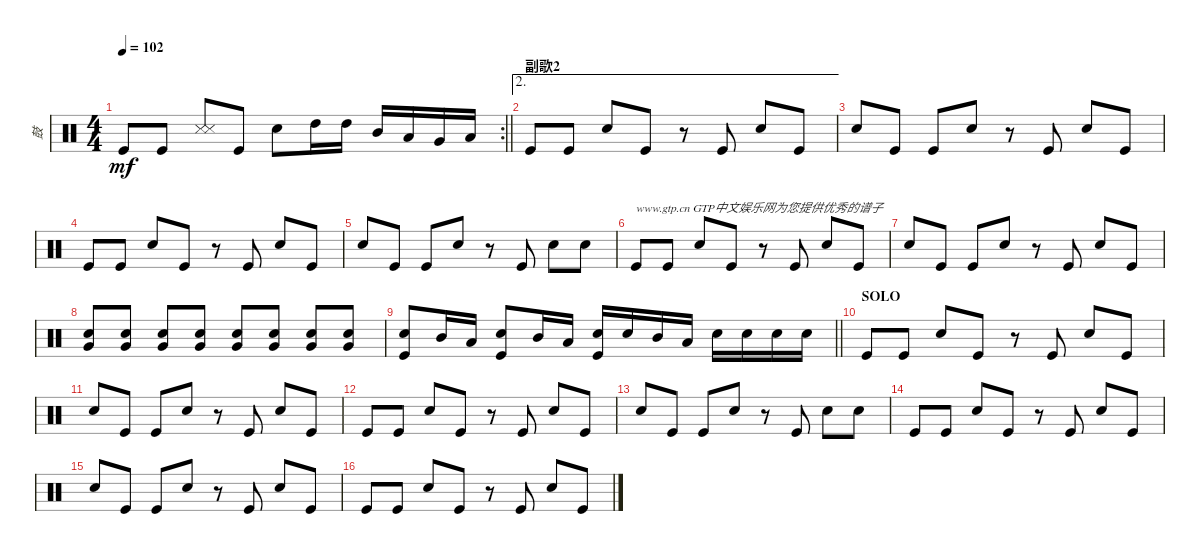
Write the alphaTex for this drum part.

\track ("鼓" "鼓") {instrument percussion}
\staff {score}
\articulation defaults
\rc 2
\ts (4 4)
\tempo 102
\clef neutral
\barLineRight lightlight
\ks c "Kick (hit)".8{dy mf} "Kick (hit)".8
("Snare (side stick) 3" "Snare (side stick) 3").8 "Kick (hit)".8 "Electric Snare (hit)".8 "High Tom (hit)".16 "High Tom (hit)".16 "Mid Tom (hit)".16 "Low Tom (hit)".16 "Very Low Tom (hit)".16 "Low Floor Tom (hit)".16 |
\ae 2
\section ("" "副歌2")
"Kick (hit)".8 "Kick (hit)".8 "Electric Snare (hit)".8 "Kick (hit)".8 r.8 "Kick (hit)".8 "Electric Snare (hit)".8 "Kick (hit)".8 |
"Electric Snare (hit)".8 "Kick (hit)".8 "Kick (hit)".8 "Electric Snare (hit)".8 r.8 "Kick (hit)".8 "Electric Snare (hit)".8 "Kick (hit)".8 |
"Kick (hit)".8 "Kick (hit)".8 "Electric Snare (hit)".8 "Kick (hit)".8 r.8 "Kick (hit)".8 "Electric Snare (hit)".8 "Kick (hit)".8 |
"Electric Snare (hit)".8 "Kick (hit)".8 "Kick (hit)".8 "Electric Snare (hit)".8 r.8 "Kick (hit)".8 "Electric Snare (hit)".8 "Electric Snare (hit)".8 |
"Kick (hit)".8{txt "www.gtp.cn GTP中文娱乐网为您提供优秀的谱子"} "Kick (hit)".8 "Electric Snare (hit)".8 "Kick (hit)".8 r.8 "Kick (hit)".8 "Electric Snare (hit)".8 "Kick (hit)".8 |
"Electric Snare (hit)".8 "Kick (hit)".8 "Kick (hit)".8 "Electric Snare (hit)".8 r.8 "Kick (hit)".8 "Electric Snare (hit)".8 "Kick (hit)".8 |
("Electric Snare (hit)" "Very Low Tom (hit)").8 ("Electric Snare (hit)" "Very Low Tom (hit)").8 ("Electric Snare (hit)" "Very Low Tom (hit)").8 ("Electric Snare (hit)" "Very Low Tom (hit)").8 ("Electric Snare (hit)" "Very Low Tom (hit)").8 ("Electric Snare (hit)" "Very Low Tom (hit)").8 ("Electric Snare (hit)" "Very Low Tom (hit)").8 ("Electric Snare (hit)" "Very Low Tom (hit)").8 |
\barLineRight lightlight
("Electric Snare (hit)" "Kick (hit)").8 "Mid Tom (hit)".16 "Low Tom (hit)".16 ("Electric Snare (hit)" "Kick (hit)").8 "Mid Tom (hit)".16 "Low Tom (hit)".16 ("Electric Snare (hit)" "Kick (hit)").16 "Electric Snare (hit)".16 "Mid Tom (hit)".16 "Low Tom (hit)".16 "Electric Snare (hit)".16 "Electric Snare (hit)".16 "Electric Snare (hit)".16 "Electric Snare (hit)".16 |
\section ("" "SOLO")
"Kick (hit)".8 "Kick (hit)".8 "Electric Snare (hit)".8 "Kick (hit)".8 r.8 "Kick (hit)".8 "Electric Snare (hit)".8 "Kick (hit)".8 |
"Electric Snare (hit)".8 "Kick (hit)".8 "Kick (hit)".8 "Electric Snare (hit)".8 r.8 "Kick (hit)".8 "Electric Snare (hit)".8 "Kick (hit)".8 |
"Kick (hit)".8 "Kick (hit)".8 "Electric Snare (hit)".8 "Kick (hit)".8 r.8 "Kick (hit)".8 "Electric Snare (hit)".8 "Kick (hit)".8 |
"Electric Snare (hit)".8 "Kick (hit)".8 "Kick (hit)".8 "Electric Snare (hit)".8 r.8 "Kick (hit)".8 "Electric Snare (hit)".8 "Electric Snare (hit)".8 |
"Kick (hit)".8 "Kick (hit)".8 "Electric Snare (hit)".8 "Kick (hit)".8 r.8 "Kick (hit)".8 "Electric Snare (hit)".8 "Kick (hit)".8 |
"Electric Snare (hit)".8 "Kick (hit)".8 "Kick (hit)".8 "Electric Snare (hit)".8 r.8 "Kick (hit)".8 "Electric Snare (hit)".8 "Kick (hit)".8 |
"Kick (hit)".8 "Kick (hit)".8 "Electric Snare (hit)".8 "Kick (hit)".8 r.8 "Kick (hit)".8 "Electric Snare (hit)".8 "Kick (hit)".8
